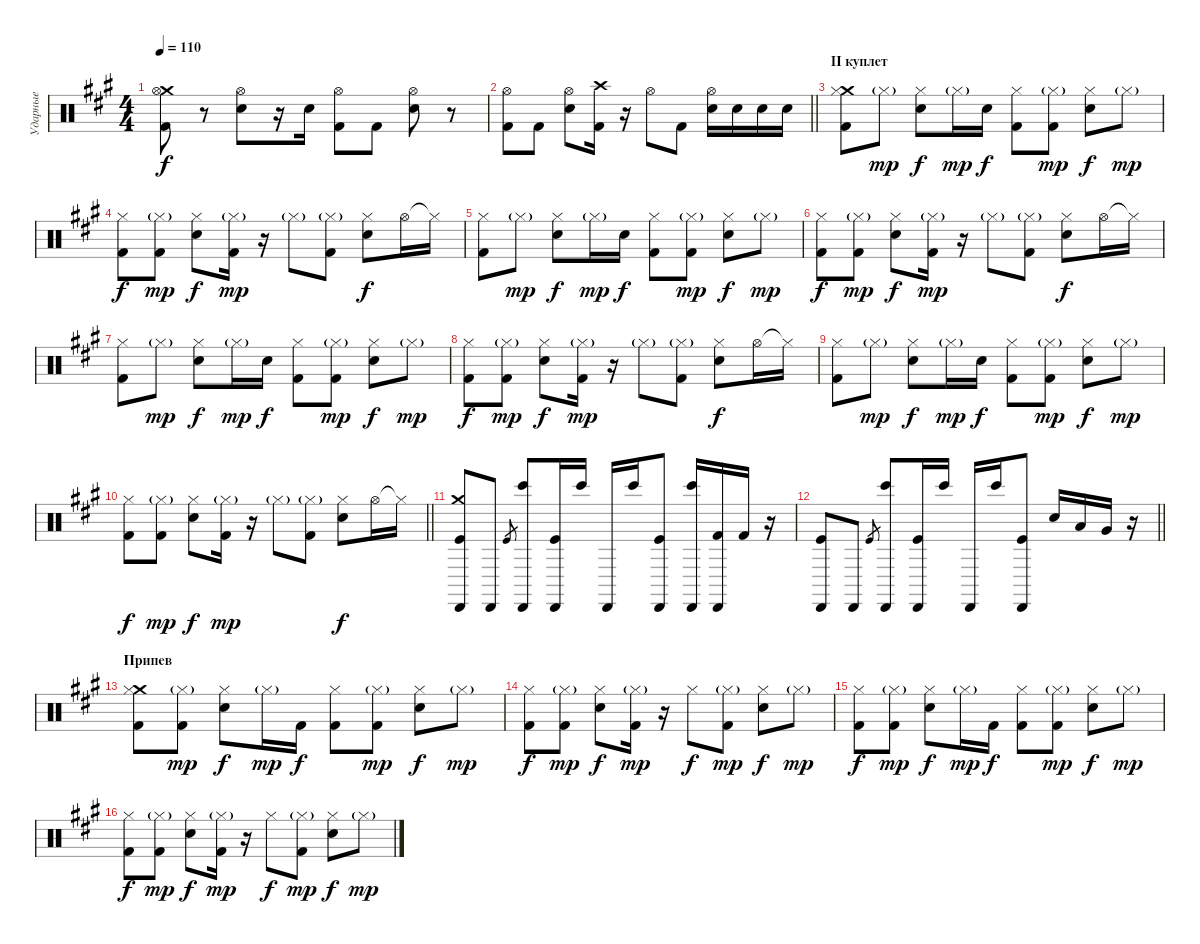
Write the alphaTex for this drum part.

\track ("Ударные" "Ударные") {instrument percussion}
\staff {score}
\articulation defaults
\ts (4 4)
\tempo 110
\clef neutral
\ks f#minor
("Crash medium (hit)" "Kick (hit) 2" "Hi-Hat (open)").8{dy f} r.8 ("Electric Snare (hit)" "Hi-Hat (open)").8 r.16 "Electric Snare (hit)".16 ("Kick (hit) 2" "Hi-Hat (open)").8 "Kick (hit) 2".8 ("Electric Snare (hit)" "Hi-Hat (open)").8 r.8 |
\barLineRight lightlight
("Kick (hit) 2" "Hi-Hat (open)").8 "Kick (hit) 2".8 ("Electric Snare (hit)" "Hi-Hat (open)").8 ("Crash high (hit)" "Kick (hit) 2").16 r.16 "Hi-Hat (open)".8 "Kick (hit) 2".8 ("Electric Snare (hit)" "Hi-Hat (open)").16 "Electric Snare (hit)".16 "Electric Snare (hit)".16 "Electric Snare (hit)".16 |
\section ("" "II куплет")
("Crash medium (hit)" "Kick (hit) 2" "Hi-Hat (closed)").8 "Hi-Hat (closed)"{g}.8{dy mp} ("Electric Snare (hit)" "Hi-Hat (closed)").8{dy f} "Hi-Hat (closed)"{g}.16{dy mp} "Electric Snare (hit)".16{dy f} ("Kick (hit) 2" "Hi-Hat (closed)").8 ("Kick (hit) 2" "Hi-Hat (closed)"{g}).8{dy mp} ("Electric Snare (hit)" "Hi-Hat (closed)").8{dy f} "Hi-Hat (closed)"{g}.8{dy mp} |
("Kick (hit) 2" "Hi-Hat (closed)").8{dy f} ("Kick (hit) 2" "Hi-Hat (closed)"{g}).8{dy mp} ("Electric Snare (hit)" "Hi-Hat (closed)").8{dy f} ("Kick (hit) 2" "Hi-Hat (closed)"{g}).16{dy mp} r.16 "Hi-Hat (closed)"{g}.8 ("Kick (hit) 2" "Hi-Hat (closed)"{g}).8 ("Electric Snare (hit)" "Hi-Hat (closed)").8{dy f} "Hi-Hat (open)".16 "Hi-Hat (closed)"{t}.16 |
("Kick (hit) 2" "Hi-Hat (closed)").8 "Hi-Hat (closed)"{g}.8{dy mp} ("Electric Snare (hit)" "Hi-Hat (closed)").8{dy f} "Hi-Hat (closed)"{g}.16{dy mp} "Electric Snare (hit)".16{dy f} ("Kick (hit) 2" "Hi-Hat (closed)").8 ("Kick (hit) 2" "Hi-Hat (closed)"{g}).8{dy mp} ("Electric Snare (hit)" "Hi-Hat (closed)").8{dy f} "Hi-Hat (closed)"{g}.8{dy mp} |
("Kick (hit) 2" "Hi-Hat (closed)").8{dy f} ("Kick (hit) 2" "Hi-Hat (closed)"{g}).8{dy mp} ("Electric Snare (hit)" "Hi-Hat (closed)").8{dy f} ("Kick (hit) 2" "Hi-Hat (closed)"{g}).16{dy mp} r.16 "Hi-Hat (closed)"{g}.8 ("Kick (hit) 2" "Hi-Hat (closed)"{g}).8 ("Electric Snare (hit)" "Hi-Hat (closed)").8{dy f} "Hi-Hat (open)".16 "Hi-Hat (closed)"{t}.16 |
("Kick (hit) 2" "Hi-Hat (closed)").8 "Hi-Hat (closed)"{g}.8{dy mp} ("Electric Snare (hit)" "Hi-Hat (closed)").8{dy f} "Hi-Hat (closed)"{g}.16{dy mp} "Electric Snare (hit)".16{dy f} ("Kick (hit) 2" "Hi-Hat (closed)").8 ("Kick (hit) 2" "Hi-Hat (closed)"{g}).8{dy mp} ("Electric Snare (hit)" "Hi-Hat (closed)").8{dy f} "Hi-Hat (closed)"{g}.8{dy mp} |
("Kick (hit) 2" "Hi-Hat (closed)").8{dy f} ("Kick (hit) 2" "Hi-Hat (closed)"{g}).8{dy mp} ("Electric Snare (hit)" "Hi-Hat (closed)").8{dy f} ("Kick (hit) 2" "Hi-Hat (closed)"{g}).16{dy mp} r.16 "Hi-Hat (closed)"{g}.8 ("Kick (hit) 2" "Hi-Hat (closed)"{g}).8 ("Electric Snare (hit)" "Hi-Hat (closed)").8{dy f} "Hi-Hat (open)".16 "Hi-Hat (closed)"{t}.16 |
("Kick (hit) 2" "Hi-Hat (closed)").8 "Hi-Hat (closed)"{g}.8{dy mp} ("Electric Snare (hit)" "Hi-Hat (closed)").8{dy f} "Hi-Hat (closed)"{g}.16{dy mp} "Electric Snare (hit)".16{dy f} ("Kick (hit) 2" "Hi-Hat (closed)").8 ("Kick (hit) 2" "Hi-Hat (closed)"{g}).8{dy mp} ("Electric Snare (hit)" "Hi-Hat (closed)").8{dy f} "Hi-Hat (closed)"{g}.8{dy mp} |
\barLineRight lightlight
("Kick (hit) 2" "Hi-Hat (closed)").8{dy f} ("Kick (hit) 2" "Hi-Hat (closed)"{g}).8{dy mp} ("Electric Snare (hit)" "Hi-Hat (closed)").8{dy f} ("Kick (hit) 2" "Hi-Hat (closed)"{g}).16{dy mp} r.16 "Hi-Hat (closed)"{g}.8 ("Kick (hit) 2" "Hi-Hat (closed)"{g}).8 ("Electric Snare (hit)" "Hi-Hat (closed)").8{dy f} "Hi-Hat (open)".16 "Hi-Hat (closed)"{t}.16 |
\section ("" "")
("Crash medium (hit)" "Kick (hit)" "Cabasa (hit)").8 "Cabasa (hit)".8 "Kick (hit)".8{gr} ("Bongo High (hit)" "Cabasa (hit)").8 ("Kick (hit)" "Cabasa (hit)").16 "Bongo High (hit)".16 "Cabasa (hit)".16 "Bongo High (hit)".16 ("Kick (hit)" "Cabasa (hit)").8 ("Bongo High (hit)" "Cabasa (hit)").16 ("Kick (hit) 2" "Cabasa (hit)").16 "Kick (hit) 2".16 r.16 |
\barLineRight lightlight
("Kick (hit)" "Cabasa (hit)").8 "Cabasa (hit)".8 "Kick (hit)".8{gr} ("Bongo High (hit)" "Cabasa (hit)").8 ("Kick (hit)" "Cabasa (hit)").16 "Bongo High (hit)".16 "Cabasa (hit)".16 "Bongo High (hit)".16 ("Kick (hit)" "Cabasa (hit)").8 "Electric Snare (hit)".16 "Low Tom (hit)".16 "Very Low Tom (hit)".16 r.16 |
\section ("" "Припев")
("Crash medium (hit)" "Kick (hit) 2" "Hi-Hat (closed)").8 ("Kick (hit) 2" "Hi-Hat (closed)"{g}).8{dy mp} ("Electric Snare (hit)" "Hi-Hat (closed)").8{dy f} "Hi-Hat (closed)"{g}.16{dy mp} "Kick (hit) 2".16{dy f} ("Kick (hit) 2" "Hi-Hat (closed)").8 ("Kick (hit) 2" "Hi-Hat (closed)"{g}).8{dy mp} ("Electric Snare (hit)" "Hi-Hat (closed)").8{dy f} "Hi-Hat (closed)"{g}.8{dy mp} |
("Kick (hit) 2" "Hi-Hat (closed)").8{dy f} ("Kick (hit) 2" "Hi-Hat (closed)"{g}).8{dy mp} ("Electric Snare (hit)" "Hi-Hat (closed)").8{dy f} ("Kick (hit) 2" "Hi-Hat (closed)"{g}).16{dy mp} r.16 "Hi-Hat (closed)".8{dy f} ("Kick (hit) 2" "Hi-Hat (closed)"{g}).8{dy mp} ("Electric Snare (hit)" "Hi-Hat (closed)").8{dy f} "Hi-Hat (closed)"{g}.8{dy mp} |
("Kick (hit) 2" "Hi-Hat (closed)").8{dy f} ("Kick (hit) 2" "Hi-Hat (closed)"{g}).8{dy mp} ("Electric Snare (hit)" "Hi-Hat (closed)").8{dy f} "Hi-Hat (closed)"{g}.16{dy mp} "Kick (hit) 2".16{dy f} ("Kick (hit) 2" "Hi-Hat (closed)").8 ("Kick (hit) 2" "Hi-Hat (closed)"{g}).8{dy mp} ("Electric Snare (hit)" "Hi-Hat (closed)").8{dy f} "Hi-Hat (closed)"{g}.8{dy mp} |
("Kick (hit) 2" "Hi-Hat (closed)").8{dy f} ("Kick (hit) 2" "Hi-Hat (closed)"{g}).8{dy mp} ("Electric Snare (hit)" "Hi-Hat (closed)").8{dy f} ("Kick (hit) 2" "Hi-Hat (closed)"{g}).16{dy mp} r.16 "Hi-Hat (closed)".8{dy f} ("Kick (hit) 2" "Hi-Hat (closed)"{g}).8{dy mp} ("Electric Snare (hit)" "Hi-Hat (closed)").8{dy f} "Hi-Hat (closed)"{g}.8{dy mp}
